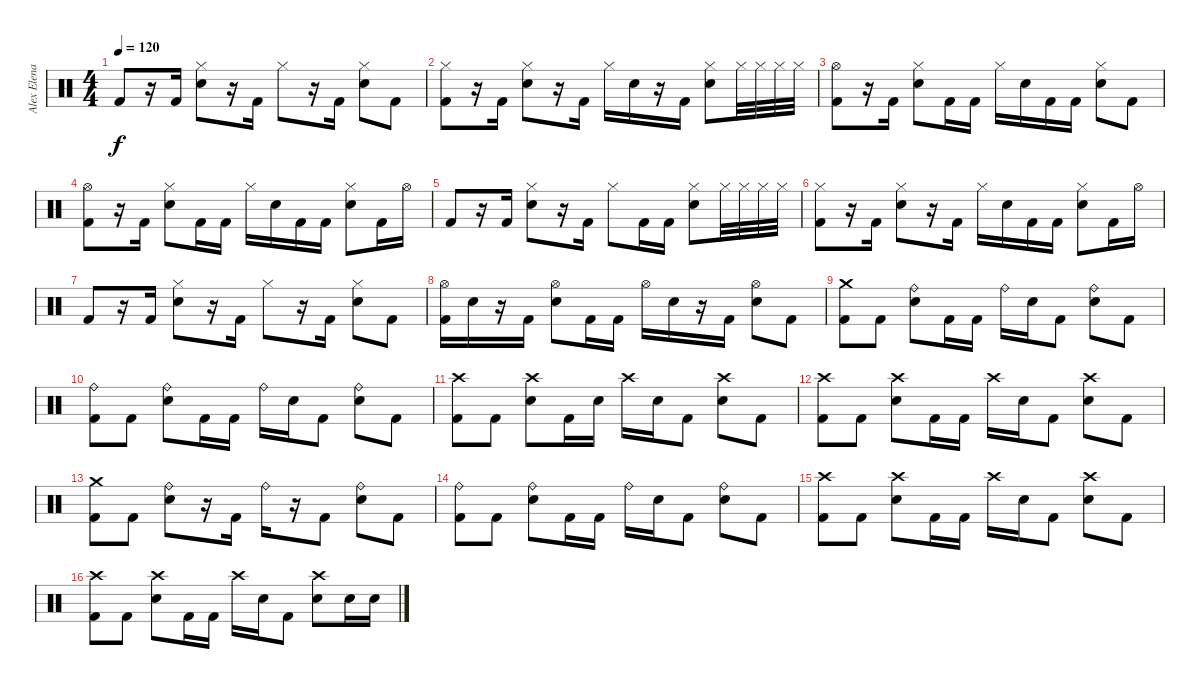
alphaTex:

\track ("Alex Elena (Percussion)" "Alex Elena") {instrument percussion}
\staff {score}
\articulation defaults
\ts (4 4)
\tempo 120
\clef neutral
\ks c "Kick (hit) 2".8{dy f}
r.16 "Kick (hit) 2".16 ("Hi-Hat (closed)" "Snare (hit) 2").8 r.16 "Kick (hit) 2".16 "Hi-Hat (closed)".8 r.16 "Kick (hit) 2".16 ("Hi-Hat (closed)" "Snare (hit) 2").8 "Kick (hit) 2".8 |
("Hi-Hat (closed)" "Kick (hit) 2").8 r.16 "Kick (hit) 2".16 ("Hi-Hat (closed)" "Snare (hit) 2").8 r.16 "Kick (hit) 2".16 "Hi-Hat (closed)".16 "Snare (hit) 2".16 r.16 "Kick (hit) 2".16 ("Hi-Hat (closed)" "Snare (hit) 2").8 "Hi-Hat (closed)".32 "Hi-Hat (closed)".32 "Hi-Hat (closed)".32 "Hi-Hat (closed)".32 |
("Hi-Hat (open)" "Kick (hit) 2").8 r.16 "Kick (hit) 2".16 ("Hi-Hat (closed)" "Snare (hit) 2").8 "Kick (hit) 2".16 "Kick (hit) 2".16 "Hi-Hat (closed)".16 "Snare (hit) 2".16 "Kick (hit) 2".16 "Kick (hit) 2".16 ("Hi-Hat (closed)" "Snare (hit) 2").8 "Kick (hit) 2".8 |
("Hi-Hat (open)" "Kick (hit) 2").8 r.16 "Kick (hit) 2".16 ("Hi-Hat (closed)" "Snare (hit) 2").8 "Kick (hit) 2".16 "Kick (hit) 2".16 "Hi-Hat (closed)".16 "Snare (hit) 2".16 "Kick (hit) 2".16 "Kick (hit) 2".16 ("Hi-Hat (closed)" "Snare (hit) 2").8 "Kick (hit) 2".16 "Hi-Hat (open)".16 |
"Kick (hit) 2".8 r.16 "Kick (hit) 2".16 ("Hi-Hat (closed)" "Snare (hit) 2").8 r.16 "Kick (hit) 2".16 "Hi-Hat (closed)".8 "Kick (hit) 2".16 "Kick (hit) 2".16 ("Hi-Hat (closed)" "Snare (hit) 2").8 "Hi-Hat (closed)".32 "Hi-Hat (closed)".32 "Hi-Hat (closed)".32 "Hi-Hat (closed)".32 |
("Hi-Hat (closed)" "Kick (hit) 2").8 r.16 "Kick (hit) 2".16 ("Hi-Hat (closed)" "Snare (hit) 2").8 r.16 "Kick (hit) 2".16 "Hi-Hat (closed)".16 "Snare (hit) 2".16 "Kick (hit) 2".16 "Kick (hit) 2".16 ("Hi-Hat (closed)" "Snare (hit) 2").8 "Kick (hit) 2".16 "Hi-Hat (open)".16 |
"Kick (hit) 2".8 r.16 "Kick (hit) 2".16 ("Hi-Hat (closed)" "Snare (hit) 2").8 r.16 "Kick (hit) 2".16 "Hi-Hat (closed)".8 r.16 "Kick (hit) 2".16 ("Hi-Hat (closed)" "Snare (hit) 2").8 "Kick (hit) 2".8 |
("Hi-Hat (open)" "Kick (hit) 2").16 "Snare (hit) 2".16 r.16 "Kick (hit) 2".16 ("Hi-Hat (open)" "Snare (hit) 2").8 "Kick (hit) 2".16 "Kick (hit) 2".16 "Hi-Hat (open)".16 "Snare (hit) 2".16 r.16 "Kick (hit) 2".16 ("Hi-Hat (open)" "Snare (hit) 2").8 "Kick (hit) 2".8 |
("Crash medium (hit)" "Kick (hit) 2").8 "Kick (hit) 2".8 ("Ride (bell)" "Snare (hit) 2").8 "Kick (hit) 2".16 "Kick (hit) 2".16 "Ride (bell)".16 "Snare (hit) 2".16 "Kick (hit) 2".8 ("Ride (bell)" "Snare (hit) 2").8 "Kick (hit) 2".8 |
("Ride (bell)" "Kick (hit) 2").8 "Kick (hit) 2".8 ("Ride (bell)" "Snare (hit) 2").8 "Kick (hit) 2".16 "Kick (hit) 2".16 "Ride (bell)".16 "Snare (hit) 2".16 "Kick (hit) 2".8 ("Ride (bell)" "Snare (hit) 2").8 "Kick (hit) 2".8 |
("Crash high (hit)" "Kick (hit) 2").8 "Kick (hit) 2".8 ("Crash high (hit)" "Snare (hit) 2").8 "Kick (hit) 2".16 "Snare (hit) 2".16 "Crash high (hit)".16 "Snare (hit) 2".16 "Kick (hit) 2".8 ("Crash high (hit)" "Snare (hit) 2").8 "Kick (hit) 2".8 |
("Crash high (hit)" "Kick (hit) 2").8 "Kick (hit) 2".8 ("Crash high (hit)" "Snare (hit) 2").8 "Kick (hit) 2".16 "Kick (hit) 2".16 "Crash high (hit)".16 "Snare (hit) 2".16 "Kick (hit) 2".8 ("Crash high (hit)" "Snare (hit) 2").8 "Kick (hit) 2".8 |
("Crash medium (hit)" "Kick (hit) 2").8 "Kick (hit) 2".8 ("Ride (bell)" "Snare (hit) 2").8 r.16 "Kick (hit) 2".16 "Ride (bell)".16 r.16 "Kick (hit) 2".8 ("Ride (bell)" "Snare (hit) 2").8 "Kick (hit) 2".8 |
("Ride (bell)" "Kick (hit) 2").8 "Kick (hit) 2".8 ("Ride (bell)" "Snare (hit) 2").8 "Kick (hit) 2".16 "Kick (hit) 2".16 "Ride (bell)".16 "Snare (hit) 2".16 "Kick (hit) 2".8 ("Ride (bell)" "Snare (hit) 2").8 "Kick (hit) 2".8 |
("Crash high (hit)" "Kick (hit) 2").8 "Kick (hit) 2".8 ("Crash high (hit)" "Snare (hit) 2").8 "Kick (hit) 2".16 "Kick (hit) 2".16 "Crash high (hit)".16 "Snare (hit) 2".16 "Kick (hit) 2".8 ("Crash high (hit)" "Snare (hit) 2").8 "Kick (hit) 2".8 |
("Crash high (hit)" "Kick (hit) 2").8 "Kick (hit) 2".8 ("Crash high (hit)" "Snare (hit) 2").8 "Kick (hit) 2".16 "Kick (hit) 2".16 "Crash high (hit)".16 "Snare (hit) 2".16 "Kick (hit) 2".8 ("Crash high (hit)" "Snare (hit) 2").8 "Snare (hit) 2".16 "Snare (hit) 2".16
